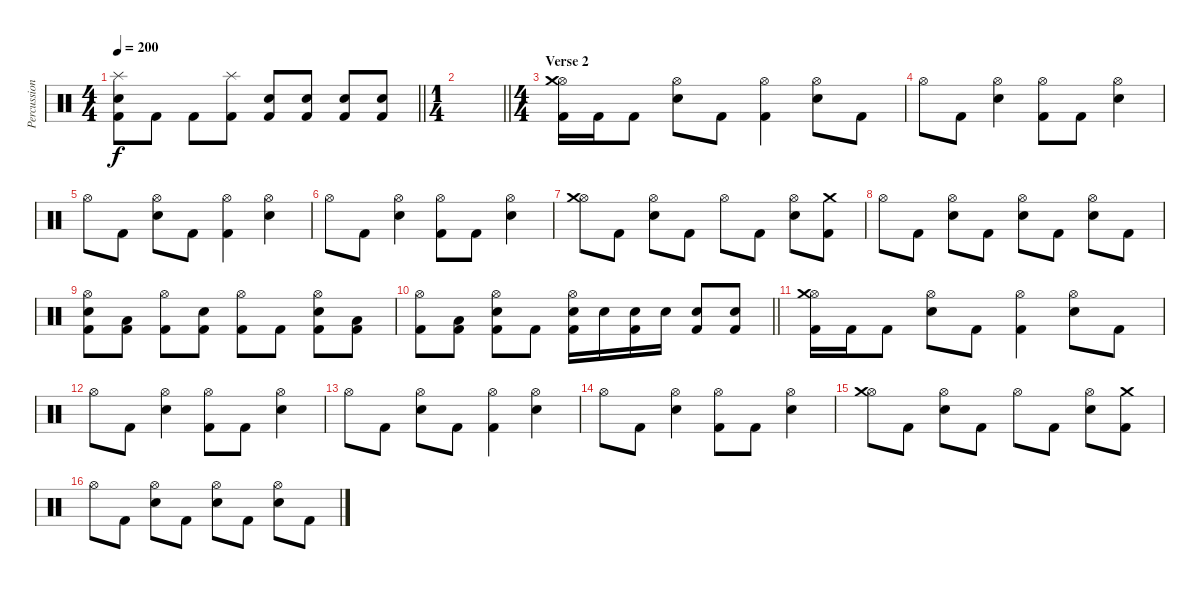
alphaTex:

\track ("Percussions" "Percussion") {instrument percussion}
\staff {score}
\articulation defaults
\ts (4 4)
\tempo 200
\clef neutral
\barLineRight lightlight
\ks c
("Splash (hit)" "Electric Snare (hit)" "Kick (hit) 2").8{dy f} "Kick (hit) 2".8 "Kick (hit) 2".8 ("Splash (hit)" "Kick (hit) 2").8 ("Electric Snare (hit)" "Kick (hit) 2").8 ("Electric Snare (hit)" "Kick (hit) 2").8 ("Electric Snare (hit)" "Kick (hit) 2").8 ("Electric Snare (hit)" "Kick (hit) 2").8 |
\ts (1 4)
\barLineRight lightlight
|
\ts (4 4)
\section ("" "Verse 2")
("Hi-Hat (open)" "Crash medium (hit)" "Kick (hit) 2").16 "Kick (hit) 2".16 "Kick (hit) 2".8 ("Hi-Hat (open)" "Electric Snare (hit)").8 "Kick (hit) 2".8 ("Hi-Hat (open)" "Kick (hit) 2").4 ("Hi-Hat (open)" "Electric Snare (hit)").8 "Kick (hit) 2".8 |
"Hi-Hat (open)".8 "Kick (hit) 2".8 ("Hi-Hat (open)" "Electric Snare (hit)").4 ("Hi-Hat (open)" "Kick (hit) 2").8 "Kick (hit) 2".8 ("Hi-Hat (open)" "Electric Snare (hit)").4 |
"Hi-Hat (open)".8 "Kick (hit) 2".8 ("Hi-Hat (open)" "Electric Snare (hit)").8 "Kick (hit) 2".8 ("Hi-Hat (open)" "Kick (hit) 2").4 ("Hi-Hat (open)" "Electric Snare (hit)").4 |
"Hi-Hat (open)".8 "Kick (hit) 2".8 ("Hi-Hat (open)" "Electric Snare (hit)").4 ("Hi-Hat (open)" "Kick (hit) 2").8 "Kick (hit) 2".8 ("Hi-Hat (open)" "Electric Snare (hit)").4 |
("Hi-Hat (open)" "Crash medium (hit)").8 "Kick (hit) 2".8 ("Hi-Hat (open)" "Electric Snare (hit)").8 "Kick (hit) 2".8 "Hi-Hat (open)".8 "Kick (hit) 2".8 ("Hi-Hat (open)" "Electric Snare (hit)").8 ("Crash medium (hit)" "Kick (hit) 2").8 |
"Hi-Hat (open)".8 "Kick (hit) 2".8 ("Hi-Hat (open)" "Electric Snare (hit)").8 "Kick (hit) 2".8 ("Hi-Hat (open)" "Electric Snare (hit)").8 "Kick (hit) 2".8 ("Hi-Hat (open)" "Electric Snare (hit)").8 "Kick (hit) 2".8 |
("Hi-Hat (open)" "Electric Snare (hit)" "Kick (hit) 2").8 ("Low Tom (hit)" "Kick (hit) 2").8 ("Hi-Hat (open)" "Kick (hit) 2").8 ("Electric Snare (hit)" "Kick (hit) 2").8 ("Hi-Hat (open)" "Kick (hit) 2").8 "Kick (hit) 2".8 ("Hi-Hat (open)" "Electric Snare (hit)" "Kick (hit) 2").8 ("Low Tom (hit)" "Kick (hit) 2").8 |
\barLineRight lightlight
("Hi-Hat (open)" "Kick (hit) 2").8 ("Low Tom (hit)" "Kick (hit) 2").8 ("Hi-Hat (open)" "Electric Snare (hit)" "Kick (hit) 2").8 "Kick (hit) 2".8 ("Hi-Hat (open)" "Electric Snare (hit)" "Kick (hit) 2").16 "Electric Snare (hit)".16 ("Electric Snare (hit)" "Kick (hit) 2").16 "Electric Snare (hit)".16 ("Electric Snare (hit)" "Kick (hit) 2").8 ("Electric Snare (hit)" "Kick (hit) 2").8 |
("Hi-Hat (open)" "Crash medium (hit)" "Kick (hit) 2").16 "Kick (hit) 2".16 "Kick (hit) 2".8 ("Hi-Hat (open)" "Electric Snare (hit)").8 "Kick (hit) 2".8 ("Hi-Hat (open)" "Kick (hit) 2").4 ("Hi-Hat (open)" "Electric Snare (hit)").8 "Kick (hit) 2".8 |
"Hi-Hat (open)".8 "Kick (hit) 2".8 ("Hi-Hat (open)" "Electric Snare (hit)").4 ("Hi-Hat (open)" "Kick (hit) 2").8 "Kick (hit) 2".8 ("Hi-Hat (open)" "Electric Snare (hit)").4 |
"Hi-Hat (open)".8 "Kick (hit) 2".8 ("Hi-Hat (open)" "Electric Snare (hit)").8 "Kick (hit) 2".8 ("Hi-Hat (open)" "Kick (hit) 2").4 ("Hi-Hat (open)" "Electric Snare (hit)").4 |
"Hi-Hat (open)".8 "Kick (hit) 2".8 ("Hi-Hat (open)" "Electric Snare (hit)").4 ("Hi-Hat (open)" "Kick (hit) 2").8 "Kick (hit) 2".8 ("Hi-Hat (open)" "Electric Snare (hit)").4 |
("Hi-Hat (open)" "Crash medium (hit)").8 "Kick (hit) 2".8 ("Hi-Hat (open)" "Electric Snare (hit)").8 "Kick (hit) 2".8 "Hi-Hat (open)".8 "Kick (hit) 2".8 ("Hi-Hat (open)" "Electric Snare (hit)").8 ("Crash medium (hit)" "Kick (hit) 2").8 |
"Hi-Hat (open)".8 "Kick (hit) 2".8 ("Hi-Hat (open)" "Electric Snare (hit)").8 "Kick (hit) 2".8 ("Hi-Hat (open)" "Electric Snare (hit)").8 "Kick (hit) 2".8 ("Hi-Hat (open)" "Electric Snare (hit)").8 "Kick (hit) 2".8
